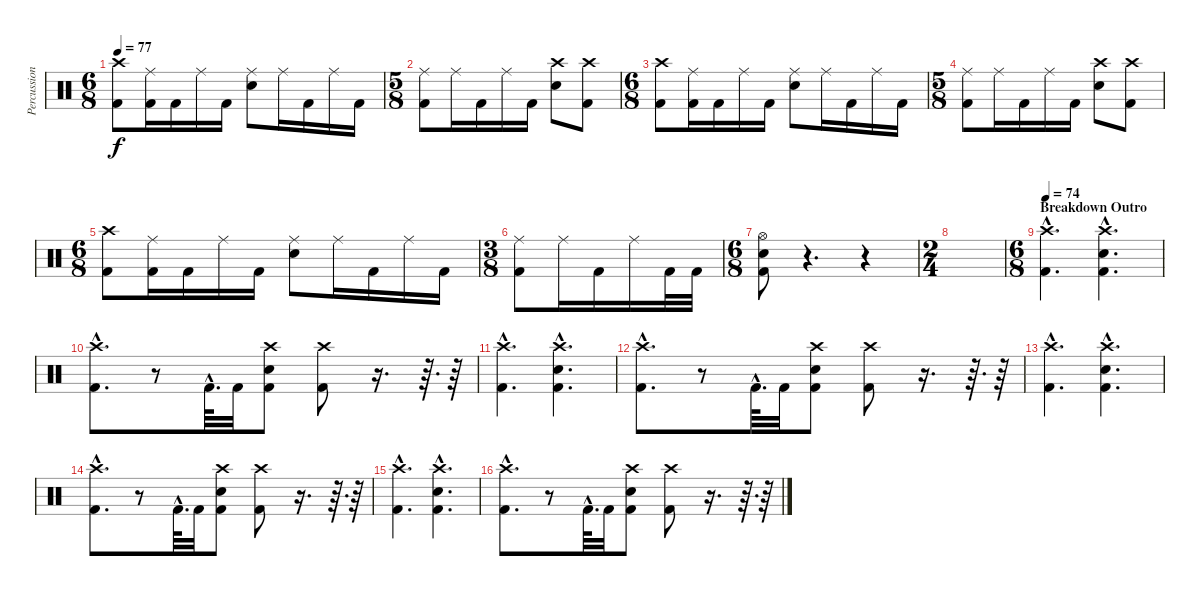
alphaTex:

\track ("Percussion" "Percussion") {instrument percussion}
\staff {score}
\articulation defaults
\ts (6 8)
\tempo 77
\clef neutral
\ks c
("Crash high (hit)" "Kick (hit) 2").8{dy f} ("Ride (middle)" "Kick (hit) 2").16 "Kick (hit) 2".16 "Ride (middle)".16 "Kick (hit) 2".16 ("Ride (middle)" "Electric Snare (hit)").8 "Ride (middle)".16 "Kick (hit) 2".16 "Ride (middle)".16 "Kick (hit) 2".16 |
\ts (5 8)
("Ride (middle)" "Kick (hit) 2").8 "Ride (middle)".16 "Kick (hit) 2".16 "Ride (middle)".16 "Kick (hit) 2".16 ("Crash high (hit)" "Electric Snare (hit)").8 ("Crash high (hit)" "Kick (hit) 2").8 |
\ts (6 8)
("Crash high (hit)" "Kick (hit) 2").8 ("Ride (middle)" "Kick (hit) 2").16 "Kick (hit) 2".16 "Ride (middle)".16 "Kick (hit) 2".16 ("Ride (middle)" "Electric Snare (hit)").8 "Ride (middle)".16 "Kick (hit) 2".16 "Ride (middle)".16 "Kick (hit) 2".16 |
\ts (5 8)
("Ride (middle)" "Kick (hit) 2").8 "Ride (middle)".16 "Kick (hit) 2".16 "Ride (middle)".16 "Kick (hit) 2".16 ("Crash high (hit)" "Electric Snare (hit)").8 ("Crash high (hit)" "Kick (hit) 2").8 |
\ts (6 8)
("Crash high (hit)" "Kick (hit) 2").8 ("Ride (middle)" "Kick (hit) 2").16 "Kick (hit) 2".16 "Ride (middle)".16 "Kick (hit) 2".16 ("Ride (middle)" "Electric Snare (hit)").8 "Ride (middle)".16 "Kick (hit) 2".16 "Ride (middle)".16 "Kick (hit) 2".16 |
\ts (3 8)
("Ride (middle)" "Kick (hit) 2").8 "Ride (middle)".16 "Kick (hit) 2".16 "Ride (middle)".16 "Kick (hit) 2".32 "Kick (hit) 2".32 |
\ts (6 8)
("Hi-Hat (open)" "Electric Snare (hit)" "Kick (hit) 2").8 r.4{d} r.4 |
\ts (2 4)
|
\ts (6 8)
\section ("" "Breakdown Outro")
\tempo 72
\tempo 74
("Crash high (hit)"{hac} "Kick (hit) 2"{hac}).4{d} ("Crash high (hit)"{hac} "Electric Snare (hit)"{hac} "Kick (hit) 2"{hac}).4{d} |
("Crash high (hit)"{hac} "Kick (hit) 2"{hac}).8{d} r.8 "Kick (hit) 2"{hac}.64{d} "Kick (hit) 2".32 ("Crash high (hit)" "Electric Snare (hit)" "Kick (hit) 2").8 ("Crash high (hit)" "Kick (hit) 2").8 r.16{d} r.64{d} r.64 |
("Crash high (hit)"{hac} "Kick (hit) 2"{hac}).4{d} ("Crash high (hit)"{hac} "Electric Snare (hit)"{hac} "Kick (hit) 2"{hac}).4{d} |
("Crash high (hit)"{hac} "Kick (hit) 2"{hac}).8{d} r.8 "Kick (hit) 2"{hac}.64{d} "Kick (hit) 2".32 ("Crash high (hit)" "Electric Snare (hit)" "Kick (hit) 2").8 ("Crash high (hit)" "Kick (hit) 2").8 r.16{d} r.64{d} r.64 |
("Crash high (hit)"{hac} "Kick (hit) 2"{hac}).4{d} ("Crash high (hit)"{hac} "Electric Snare (hit)"{hac} "Kick (hit) 2"{hac}).4{d} |
("Crash high (hit)"{hac} "Kick (hit) 2"{hac}).8{d} r.8 "Kick (hit) 2"{hac}.64{d} "Kick (hit) 2".32 ("Crash high (hit)" "Electric Snare (hit)" "Kick (hit) 2").8 ("Crash high (hit)" "Kick (hit) 2").8 r.16{d} r.64{d} r.64 |
("Crash high (hit)"{hac} "Kick (hit) 2"{hac}).4{d} ("Crash high (hit)"{hac} "Electric Snare (hit)"{hac} "Kick (hit) 2"{hac}).4{d} |
("Crash high (hit)"{hac} "Kick (hit) 2"{hac}).8{d} r.8 "Kick (hit) 2"{hac}.64{d} "Kick (hit) 2".32 ("Crash high (hit)" "Electric Snare (hit)" "Kick (hit) 2").8 ("Crash high (hit)" "Kick (hit) 2").8 r.16{d} r.64{d} r.64
